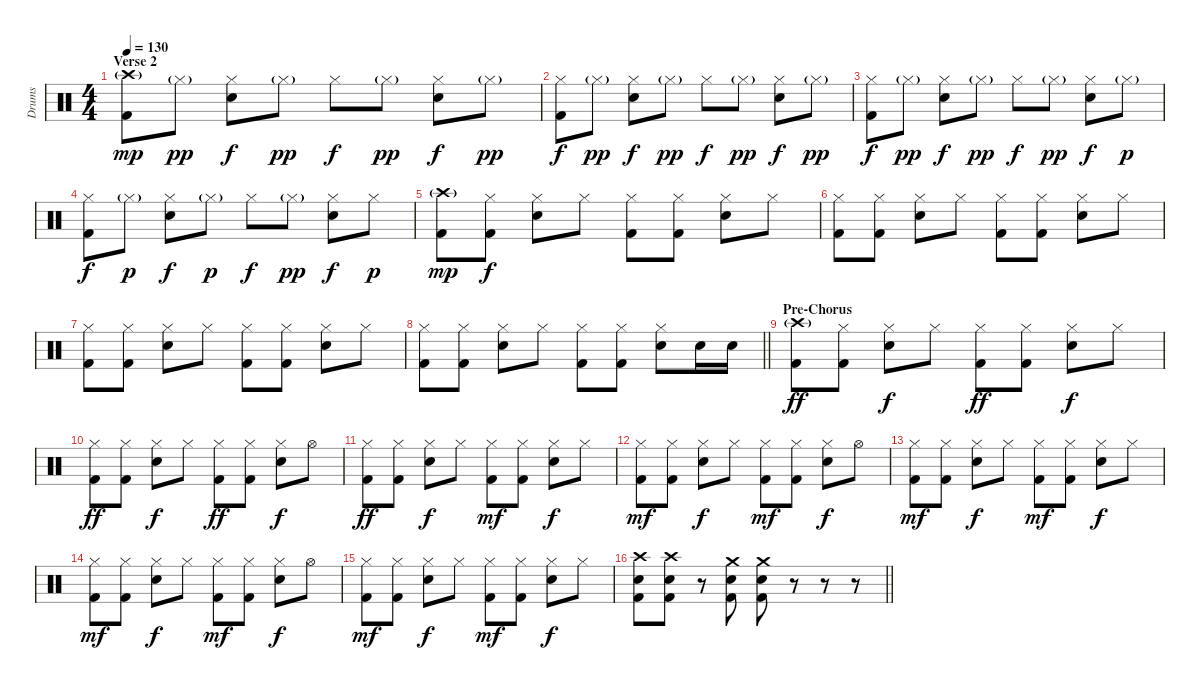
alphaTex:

\track ("Drums" "Drums") {instrument percussion}
\staff {score}
\articulation defaults
\ts (4 4)
\section ("" "Verse 2")
\tempo 130
\clef neutral
\ks c
("Crash high (hit)"{g} "Kick (hit) 2").8{dy mp} "Hi-Hat (closed)"{g}.8{dy pp} ("Hi-Hat (closed)" "Electric Snare (hit)").8{dy f} "Hi-Hat (closed)"{g}.8{dy pp} "Hi-Hat (closed)".8{dy f} "Hi-Hat (closed)"{g}.8{dy pp} ("Hi-Hat (closed)" "Electric Snare (hit)").8{dy f} "Hi-Hat (closed)"{g}.8{dy pp} |
("Hi-Hat (closed)" "Kick (hit) 2").8{dy f} "Hi-Hat (closed)"{g}.8{dy pp} ("Hi-Hat (closed)" "Electric Snare (hit)").8{dy f} "Hi-Hat (closed)"{g}.8{dy pp} "Hi-Hat (closed)".8{dy f} "Hi-Hat (closed)"{g}.8{dy pp} ("Hi-Hat (closed)" "Electric Snare (hit)").8{dy f} "Hi-Hat (closed)"{g}.8{dy pp} |
("Hi-Hat (closed)" "Kick (hit) 2").8{dy f} "Hi-Hat (closed)"{g}.8{dy pp} ("Hi-Hat (closed)" "Electric Snare (hit)").8{dy f} "Hi-Hat (closed)"{g}.8{dy pp} "Hi-Hat (closed)".8{dy f} "Hi-Hat (closed)"{g}.8{dy pp} ("Hi-Hat (closed)" "Electric Snare (hit)").8{dy f} "Hi-Hat (closed)"{g}.8{dy p} |
("Hi-Hat (closed)" "Kick (hit) 2").8{dy f} "Hi-Hat (closed)"{g}.8{dy p} ("Hi-Hat (closed)" "Electric Snare (hit)").8{dy f} "Hi-Hat (closed)"{g}.8{dy p} "Hi-Hat (closed)".8{dy f} "Hi-Hat (closed)"{g}.8{dy pp} ("Hi-Hat (closed)" "Electric Snare (hit)").8{dy f} "Hi-Hat (closed)".8{dy p} |
("Crash high (hit)"{g} "Kick (hit) 2").8{dy mp} ("Hi-Hat (closed)" "Kick (hit) 2").8{dy f} ("Hi-Hat (closed)" "Electric Snare (hit)").8 "Hi-Hat (closed)".8 ("Hi-Hat (closed)" "Kick (hit) 2").8 ("Hi-Hat (closed)" "Kick (hit) 2").8 ("Hi-Hat (closed)" "Electric Snare (hit)").8 "Hi-Hat (closed)".8 |
("Hi-Hat (closed)" "Kick (hit) 2").8 ("Hi-Hat (closed)" "Kick (hit) 2").8 ("Hi-Hat (closed)" "Electric Snare (hit)").8 "Hi-Hat (closed)".8 ("Hi-Hat (closed)" "Kick (hit) 2").8 ("Hi-Hat (closed)" "Kick (hit) 2").8 ("Hi-Hat (closed)" "Electric Snare (hit)").8 "Hi-Hat (closed)".8 |
("Hi-Hat (closed)" "Kick (hit) 2").8 ("Hi-Hat (closed)" "Kick (hit) 2").8 ("Hi-Hat (closed)" "Electric Snare (hit)").8 "Hi-Hat (closed)".8 ("Hi-Hat (closed)" "Kick (hit) 2").8 ("Hi-Hat (closed)" "Kick (hit) 2").8 ("Hi-Hat (closed)" "Electric Snare (hit)").8 "Hi-Hat (closed)".8 |
\barLineRight lightlight
("Hi-Hat (closed)" "Kick (hit) 2").8 ("Hi-Hat (closed)" "Kick (hit) 2").8 ("Hi-Hat (closed)" "Electric Snare (hit)").8 "Hi-Hat (closed)".8 ("Hi-Hat (closed)" "Kick (hit) 2").8 ("Hi-Hat (closed)" "Kick (hit) 2").8 ("Hi-Hat (closed)" "Electric Snare (hit)").8 "Electric Snare (hit)".16 "Electric Snare (hit)".16 |
\section ("" "Pre-Chorus")
("Crash high (hit)"{g} "Kick (hit) 2").8{dy ff} ("Hi-Hat (closed)" "Kick (hit) 2").8 ("Hi-Hat (closed)" "Electric Snare (hit)").8{dy f} "Hi-Hat (closed)".8 ("Hi-Hat (closed)" "Kick (hit) 2").8{dy ff} ("Hi-Hat (closed)" "Kick (hit) 2").8 ("Hi-Hat (closed)" "Electric Snare (hit)").8{dy f} "Hi-Hat (closed)".8 |
("Hi-Hat (closed)" "Kick (hit) 2").8{dy ff} ("Hi-Hat (closed)" "Kick (hit) 2").8 ("Hi-Hat (closed)" "Electric Snare (hit)").8{dy f} "Hi-Hat (closed)".8 ("Hi-Hat (closed)" "Kick (hit) 2").8{dy ff} ("Hi-Hat (closed)" "Kick (hit) 2").8 ("Hi-Hat (closed)" "Electric Snare (hit)").8{dy f} "Hi-Hat (open)".8 |
("Hi-Hat (closed)" "Kick (hit) 2").8{dy ff} ("Hi-Hat (closed)" "Kick (hit) 2").8 ("Hi-Hat (closed)" "Electric Snare (hit)").8{dy f} "Hi-Hat (closed)".8 ("Hi-Hat (closed)" "Kick (hit) 2").8{dy mf} ("Hi-Hat (closed)" "Kick (hit) 2").8 ("Hi-Hat (closed)" "Electric Snare (hit)").8{dy f} "Hi-Hat (closed)".8 |
("Hi-Hat (closed)" "Kick (hit) 2").8{dy mf} ("Hi-Hat (closed)" "Kick (hit) 2").8 ("Hi-Hat (closed)" "Electric Snare (hit)").8{dy f} "Hi-Hat (closed)".8 ("Hi-Hat (closed)" "Kick (hit) 2").8{dy mf} ("Hi-Hat (closed)" "Kick (hit) 2").8 ("Hi-Hat (closed)" "Electric Snare (hit)").8{dy f} "Hi-Hat (open)".8 |
("Hi-Hat (closed)" "Kick (hit) 2").8{dy mf} ("Hi-Hat (closed)" "Kick (hit) 2").8 ("Hi-Hat (closed)" "Electric Snare (hit)").8{dy f} "Hi-Hat (closed)".8 ("Hi-Hat (closed)" "Kick (hit) 2").8{dy mf} ("Hi-Hat (closed)" "Kick (hit) 2").8 ("Hi-Hat (closed)" "Electric Snare (hit)").8{dy f} "Hi-Hat (closed)".8 |
("Hi-Hat (closed)" "Kick (hit) 2").8{dy mf} ("Hi-Hat (closed)" "Kick (hit) 2").8 ("Hi-Hat (closed)" "Electric Snare (hit)").8{dy f} "Hi-Hat (closed)".8 ("Hi-Hat (closed)" "Kick (hit) 2").8{dy mf} ("Hi-Hat (closed)" "Kick (hit) 2").8 ("Hi-Hat (closed)" "Electric Snare (hit)").8{dy f} "Hi-Hat (open)".8 |
("Hi-Hat (closed)" "Kick (hit) 2").8{dy mf} ("Hi-Hat (closed)" "Kick (hit) 2").8 ("Hi-Hat (closed)" "Electric Snare (hit)").8{dy f} "Hi-Hat (closed)".8 ("Hi-Hat (closed)" "Kick (hit) 2").8{dy mf} ("Hi-Hat (closed)" "Kick (hit) 2").8 ("Hi-Hat (closed)" "Electric Snare (hit)").8{dy f} "Hi-Hat (closed)".8 |
\barLineRight lightlight
("Crash high (hit)" "Electric Snare (hit)" "Kick (hit) 2").8 ("Crash high (hit)" "Electric Snare (hit)" "Kick (hit) 2").8 r.8 ("Crash medium (hit)" "Electric Snare (hit)" "Kick (hit) 2").8 ("Crash medium (hit)" "Electric Snare (hit)" "Kick (hit) 2").8 r.8 r.8 r.8
